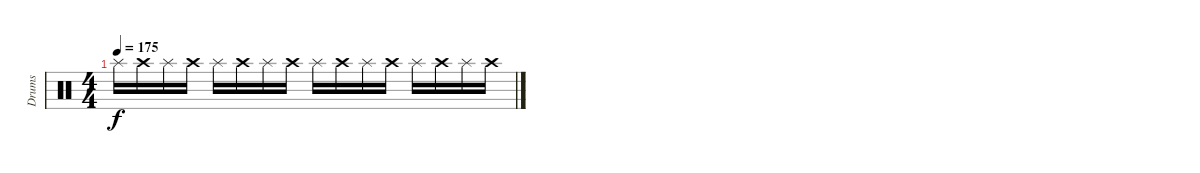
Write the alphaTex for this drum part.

\track ("Drums" "Drums") {instrument percussion}
\staff {score}
\articulation defaults
\ts (4 4)
\tempo 175
\clef neutral
\ks c "Splash (hit)".16{dy f volume 7} "Crash high (hit)".16{volume 16} "Splash (hit)".16 "Crash high (hit)".16 "Splash (hit)".16 "Crash high (hit)".16 "Splash (hit)".16 "Crash high (hit)".16 "Splash (hit)".16 "Crash high (hit)".16 "Splash (hit)".16 "Crash high (hit)".16 "Splash (hit)".16 "Crash high (hit)".16 "Splash (hit)".16 "Crash high (hit)".16
